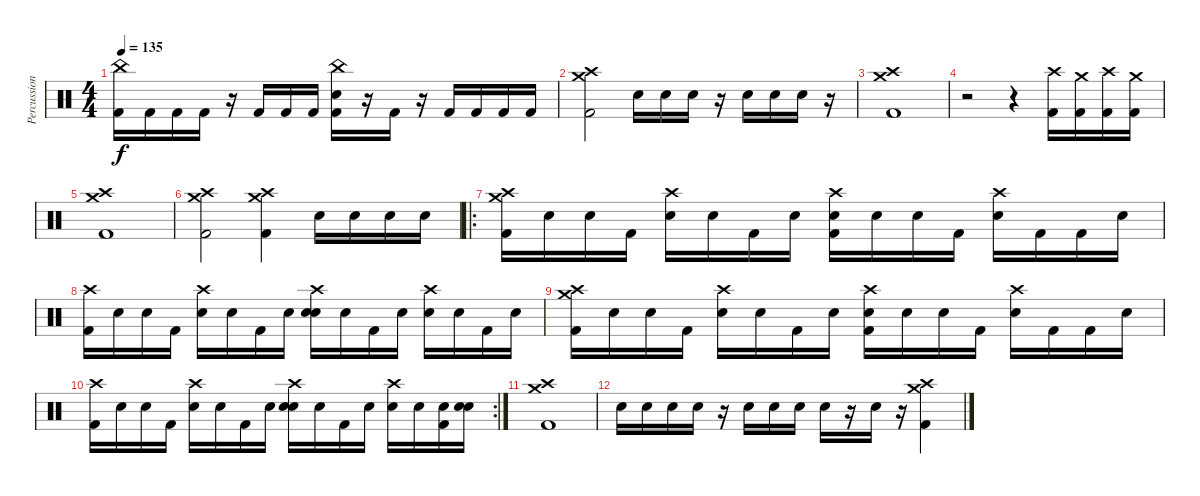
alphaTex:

\track ("Percussion" "Percussion") {instrument percussion}
\staff {score}
\articulation defaults
\ts (4 4)
\tempo 135
\clef neutral
\ks c
("China (hit)" "Kick (hit) 2").16{dy f} "Kick (hit) 2".16 "Kick (hit) 2".16 "Kick (hit) 2".16 r.16 "Kick (hit) 2".16 "Kick (hit) 2".16 "Kick (hit) 2".16 ("China (hit)" "Snare (hit) 2" "Kick (hit) 2").16 r.16 "Kick (hit) 2".16 r.16 "Kick (hit) 2".16 "Kick (hit) 2".16 "Kick (hit) 2".16 "Kick (hit) 2".16 |
("Kick (hit) 2" "Crash medium (hit)" "Crash high (hit)").2 "Snare (hit) 2".16 "Snare (hit) 2".16 "Snare (hit) 2".16 r.16 "Snare (hit) 2".16 "Snare (hit) 2".16 "Snare (hit) 2".16 r.16 |
("Crash medium (hit)" "Crash high (hit)" "Kick (hit) 2").1 |
r.2 r.4 ("Crash high (hit)" "Kick (hit) 2").16 ("Crash medium (hit)" "Kick (hit) 2").16 ("Crash high (hit)" "Kick (hit) 2").16 ("Crash medium (hit)" "Kick (hit) 2").16 |
("Crash high (hit)" "Crash medium (hit)" "Kick (hit) 2").1 |
("Crash medium (hit)" "Kick (hit) 2" "Crash high (hit)").2 ("Crash medium (hit)" "Crash high (hit)" "Kick (hit) 2").4 "Snare (hit) 2".16 "Snare (hit) 2".16 "Snare (hit) 2".16 "Snare (hit) 2".16 |
\ro
("Crash high (hit)" "Crash medium (hit)" "Kick (hit) 2").16 "Snare (hit)".16 "Snare (hit)".16 "Kick (hit) 2".16 ("Crash high (hit)" "Snare (hit)").16 "Snare (hit)".16 "Kick (hit) 2".16 "Snare (hit)".16 ("Crash high (hit)" "Snare (hit) 2" "Kick (hit) 2").16 "Snare (hit)".16 "Snare (hit)".16 "Kick (hit) 2".16 ("Crash high (hit)" "Snare (hit)").16 "Kick (hit) 2".16 "Kick (hit) 2".16 "Snare (hit)".16 |
("Crash high (hit)" "Kick (hit) 2").16 "Snare (hit)".16 "Snare (hit)".16 "Kick (hit) 2".16 ("Crash high (hit)" "Snare (hit)").16 "Snare (hit)".16 "Kick (hit) 2".16 "Snare (hit)".16 ("Crash high (hit)" "Snare (hit) 2" "Snare (hit)").16 "Snare (hit)".16 "Kick (hit) 2".16 "Snare (hit)".16 ("Crash high (hit)" "Snare (hit)").16 "Snare (hit)".16 "Kick (hit) 2".16 "Snare (hit)".16 |
("Crash high (hit)" "Crash medium (hit)" "Kick (hit) 2").16 "Snare (hit)".16 "Snare (hit)".16 "Kick (hit) 2".16 ("Crash high (hit)" "Snare (hit)").16 "Snare (hit)".16 "Kick (hit) 2".16 "Snare (hit)".16 ("Crash high (hit)" "Snare (hit) 2" "Kick (hit) 2").16 "Snare (hit)".16 "Snare (hit)".16 "Kick (hit) 2".16 ("Crash high (hit)" "Snare (hit)").16 "Kick (hit) 2".16 "Kick (hit) 2".16 "Snare (hit)".16 |
\rc 2
("Crash high (hit)" "Kick (hit) 2").16 "Snare (hit)".16 "Snare (hit)".16 "Kick (hit) 2".16 ("Crash high (hit)" "Snare (hit)").16 "Snare (hit)".16 "Kick (hit) 2".16 "Snare (hit)".16 ("Crash high (hit)" "Snare (hit) 2" "Snare (hit)").16 "Snare (hit)".16 "Kick (hit) 2".16 "Snare (hit)".16 ("Crash high (hit)" "Snare (hit)").16 "Snare (hit)".16 ("Snare (hit) 2" "Kick (hit) 2").16 ("Snare (hit) 2" "Snare (hit)").16 |
("Crash medium (hit)" "Kick (hit) 2" "Crash high (hit)").1 |
"Electric Snare (hit)".16 "Electric Snare (hit)".16 "Electric Snare (hit)".16 "Electric Snare (hit)".16 r.16 "Electric Snare (hit)".16 "Electric Snare (hit)".16 "Electric Snare (hit)".16 "Electric Snare (hit)".16 r.16 "Electric Snare (hit)".16 r.16 ("Crash medium (hit)" "Crash high (hit)" "Kick (hit) 2").4
